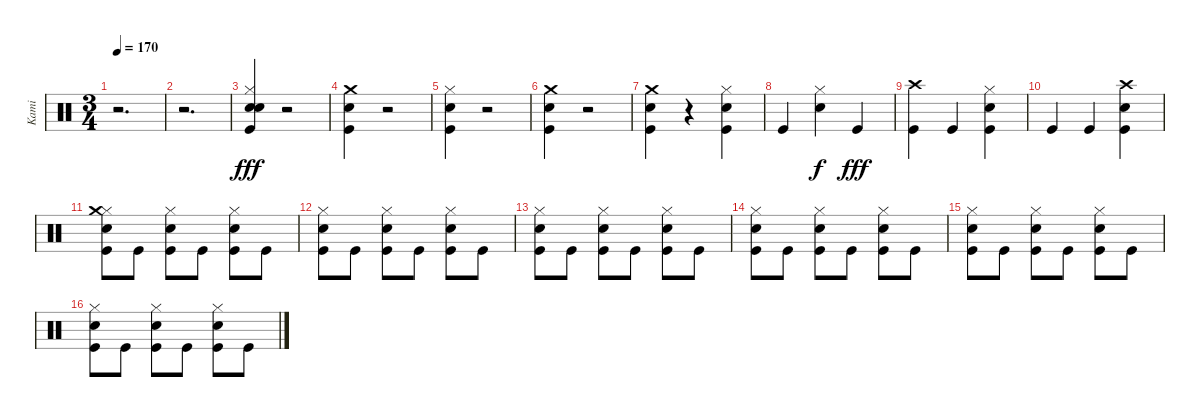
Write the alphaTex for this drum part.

\track ("Kami" "Kami") {instrument percussion}
\staff {score}
\articulation defaults
\ts (3 4)
\tempo 170
\clef neutral
\ks c
r.2{d dy fff} |
r.2{d} |
("Kick (hit)" "Snare (hit) 2" "Hi-Hat (closed)" "Electric Snare (hit)").4 r.2 |
("Kick (hit)" "Snare (hit) 2" "Crash medium (hit)").4 r.2 |
("Hi-Hat (closed)" "Snare (hit) 2" "Kick (hit)").4 r.2 |
("Kick (hit)" "Snare (hit) 2" "Crash medium (hit)").4 r.2 |
("Crash medium (hit)" "Kick (hit)" "Snare (hit) 2").4 r.4 ("Snare (hit) 2" "Kick (hit)" "Hi-Hat (closed)").4 |
"Kick (hit)".4 ("Snare (hit) 2" "Hi-Hat (closed)").4{dy f} "Kick (hit)".4{dy fff} |
("Kick (hit)" "Crash high (hit)").4 "Kick (hit)".4 ("Kick (hit)" "Snare (hit) 2" "Hi-Hat (closed)").4 |
"Kick (hit)".4 "Kick (hit)".4 ("Kick (hit)" "Snare (hit) 2" "Crash high (hit)").4 |
("Kick (hit)" "Snare (hit) 2" "Hi-Hat (closed)" "Crash medium (hit)").8 "Kick (hit)".8 ("Kick (hit)" "Snare (hit) 2" "Hi-Hat (closed)").8 "Kick (hit)".8 ("Kick (hit)" "Snare (hit) 2" "Hi-Hat (closed)").8 "Kick (hit)".8 |
("Kick (hit)" "Snare (hit) 2" "Hi-Hat (closed)").8 "Kick (hit)".8 ("Kick (hit)" "Snare (hit) 2" "Hi-Hat (closed)").8 "Kick (hit)".8 ("Kick (hit)" "Snare (hit) 2" "Hi-Hat (closed)").8 "Kick (hit)".8 |
("Kick (hit)" "Snare (hit) 2" "Hi-Hat (closed)").8 "Kick (hit)".8 ("Kick (hit)" "Snare (hit) 2" "Hi-Hat (closed)").8 "Kick (hit)".8 ("Kick (hit)" "Snare (hit) 2" "Hi-Hat (closed)").8 "Kick (hit)".8 |
("Kick (hit)" "Snare (hit) 2" "Hi-Hat (closed)").8 "Kick (hit)".8 ("Kick (hit)" "Snare (hit) 2" "Hi-Hat (closed)").8 "Kick (hit)".8 ("Kick (hit)" "Snare (hit) 2" "Hi-Hat (closed)").8 "Kick (hit)".8 |
("Kick (hit)" "Snare (hit) 2" "Hi-Hat (closed)").8 "Kick (hit)".8 ("Kick (hit)" "Snare (hit) 2" "Hi-Hat (closed)").8 "Kick (hit)".8 ("Kick (hit)" "Snare (hit) 2" "Hi-Hat (closed)").8 "Kick (hit)".8 |
("Kick (hit)" "Snare (hit) 2" "Hi-Hat (closed)").8 "Kick (hit)".8 ("Kick (hit)" "Snare (hit) 2" "Hi-Hat (closed)").8 "Kick (hit)".8 ("Kick (hit)" "Snare (hit) 2" "Hi-Hat (closed)").8 "Kick (hit)".8
